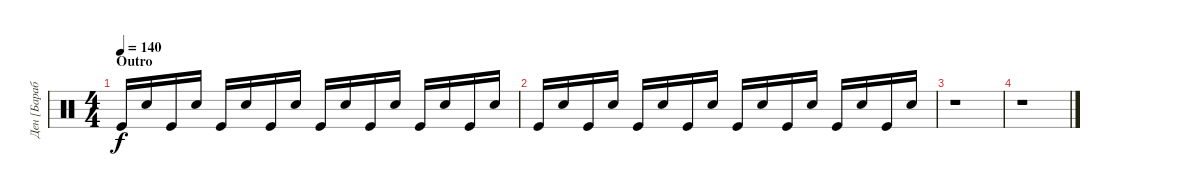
\track ("Ден [Барабаны]" "Ден [Бараб") {instrument percussion}
\staff {score}
\articulation defaults
\ts (4 4)
\section ("" "Outro")
\tempo 140
\clef neutral
\ks c "Kick (hit)".16{dy f} "Electric Snare (hit)".16 "Kick (hit)".16 "Electric Snare (hit)".16 "Kick (hit)".16 "Electric Snare (hit)".16 "Kick (hit)".16 "Electric Snare (hit)".16 "Kick (hit)".16 "Electric Snare (hit)".16 "Kick (hit)".16 "Electric Snare (hit)".16 "Kick (hit)".16 "Electric Snare (hit)".16 "Kick (hit)".16 "Electric Snare (hit)".16
|
"Kick (hit)".16 "Electric Snare (hit)".16 "Kick (hit)".16 "Electric Snare (hit)".16 "Kick (hit)".16 "Electric Snare (hit)".16 "Kick (hit)".16 "Electric Snare (hit)".16 "Kick (hit)".16 "Electric Snare (hit)".16 "Kick (hit)".16 "Electric Snare (hit)".16 "Kick (hit)".16 "Electric Snare (hit)".16 "Kick (hit)".16 "Electric Snare (hit)".16 |
r.1 |
r.1
